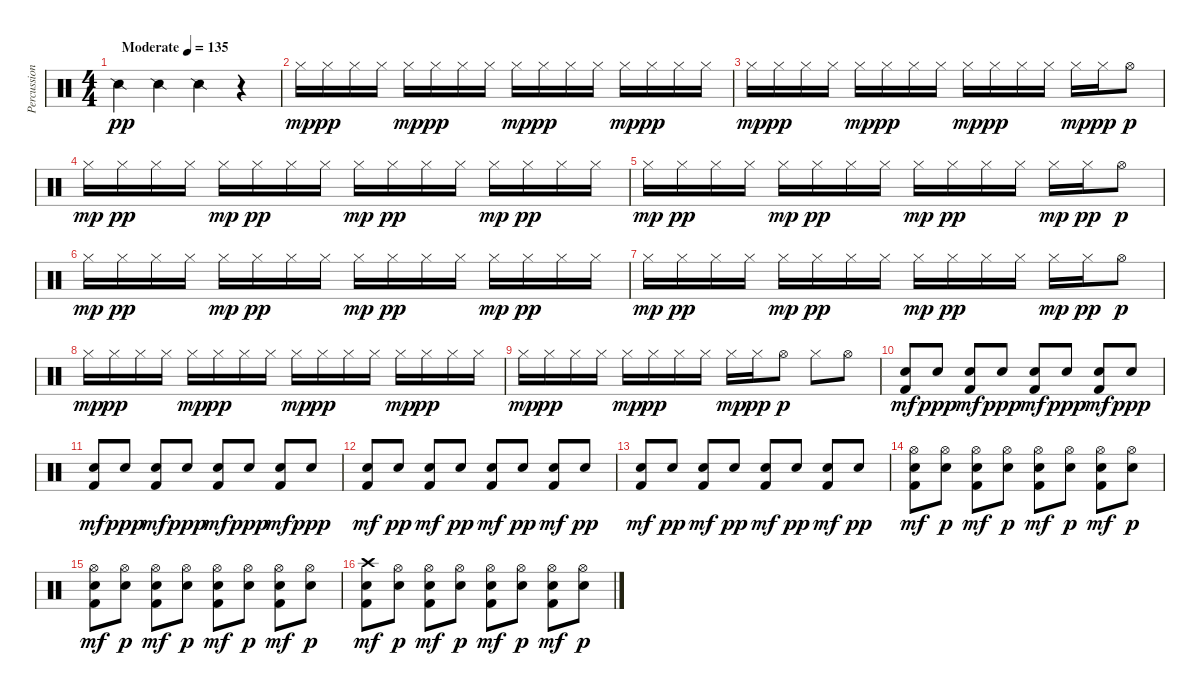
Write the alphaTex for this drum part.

\track ("Percussions" "Percussion") {instrument percussion}
\staff {score}
\articulation defaults
\ts (4 4)
\tempo (135 "Moderate")
\clef neutral
\ks c "Snare (side stick) 2".4{dy pp} "Snare (side stick) 2".4 "Snare (side stick) 2".4
r.4 |
"Hi-Hat (closed)".16{dy mp} "Hi-Hat (closed)".16{dy pp} "Hi-Hat (closed)".16 "Hi-Hat (closed)".16 "Hi-Hat (closed)".16{dy mp} "Hi-Hat (closed)".16{dy pp} "Hi-Hat (closed)".16 "Hi-Hat (closed)".16 "Hi-Hat (closed)".16{dy mp} "Hi-Hat (closed)".16{dy pp} "Hi-Hat (closed)".16 "Hi-Hat (closed)".16 "Hi-Hat (closed)".16{dy mp} "Hi-Hat (closed)".16{dy pp} "Hi-Hat (closed)".16 "Hi-Hat (closed)".16 |
"Hi-Hat (closed)".16{dy mp} "Hi-Hat (closed)".16{dy pp} "Hi-Hat (closed)".16 "Hi-Hat (closed)".16 "Hi-Hat (closed)".16{dy mp} "Hi-Hat (closed)".16{dy pp} "Hi-Hat (closed)".16 "Hi-Hat (closed)".16 "Hi-Hat (closed)".16{dy mp} "Hi-Hat (closed)".16{dy pp} "Hi-Hat (closed)".16 "Hi-Hat (closed)".16 "Hi-Hat (closed)".16{dy mp} "Hi-Hat (closed)".16{dy pp} "Hi-Hat (open)".8{dy p} |
"Hi-Hat (closed)".16{dy mp} "Hi-Hat (closed)".16{dy pp} "Hi-Hat (closed)".16 "Hi-Hat (closed)".16 "Hi-Hat (closed)".16{dy mp} "Hi-Hat (closed)".16{dy pp} "Hi-Hat (closed)".16 "Hi-Hat (closed)".16 "Hi-Hat (closed)".16{dy mp} "Hi-Hat (closed)".16{dy pp} "Hi-Hat (closed)".16 "Hi-Hat (closed)".16 "Hi-Hat (closed)".16{dy mp} "Hi-Hat (closed)".16{dy pp} "Hi-Hat (closed)".16 "Hi-Hat (closed)".16 |
"Hi-Hat (closed)".16{dy mp} "Hi-Hat (closed)".16{dy pp} "Hi-Hat (closed)".16 "Hi-Hat (closed)".16 "Hi-Hat (closed)".16{dy mp} "Hi-Hat (closed)".16{dy pp} "Hi-Hat (closed)".16 "Hi-Hat (closed)".16 "Hi-Hat (closed)".16{dy mp} "Hi-Hat (closed)".16{dy pp} "Hi-Hat (closed)".16 "Hi-Hat (closed)".16 "Hi-Hat (closed)".16{dy mp} "Hi-Hat (closed)".16{dy pp} "Hi-Hat (open)".8{dy p} |
"Hi-Hat (closed)".16{dy mp} "Hi-Hat (closed)".16{dy pp} "Hi-Hat (closed)".16 "Hi-Hat (closed)".16 "Hi-Hat (closed)".16{dy mp} "Hi-Hat (closed)".16{dy pp} "Hi-Hat (closed)".16 "Hi-Hat (closed)".16 "Hi-Hat (closed)".16{dy mp} "Hi-Hat (closed)".16{dy pp} "Hi-Hat (closed)".16 "Hi-Hat (closed)".16 "Hi-Hat (closed)".16{dy mp} "Hi-Hat (closed)".16{dy pp} "Hi-Hat (closed)".16 "Hi-Hat (closed)".16 |
"Hi-Hat (closed)".16{dy mp} "Hi-Hat (closed)".16{dy pp} "Hi-Hat (closed)".16 "Hi-Hat (closed)".16 "Hi-Hat (closed)".16{dy mp} "Hi-Hat (closed)".16{dy pp} "Hi-Hat (closed)".16 "Hi-Hat (closed)".16 "Hi-Hat (closed)".16{dy mp} "Hi-Hat (closed)".16{dy pp} "Hi-Hat (closed)".16 "Hi-Hat (closed)".16 "Hi-Hat (closed)".16{dy mp} "Hi-Hat (closed)".16{dy pp} "Hi-Hat (open)".8{dy p} |
"Hi-Hat (closed)".16{dy mp} "Hi-Hat (closed)".16{dy pp} "Hi-Hat (closed)".16 "Hi-Hat (closed)".16 "Hi-Hat (closed)".16{dy mp} "Hi-Hat (closed)".16{dy pp} "Hi-Hat (closed)".16 "Hi-Hat (closed)".16 "Hi-Hat (closed)".16{dy mp} "Hi-Hat (closed)".16{dy pp} "Hi-Hat (closed)".16 "Hi-Hat (closed)".16 "Hi-Hat (closed)".16{dy mp} "Hi-Hat (closed)".16{dy pp} "Hi-Hat (closed)".16 "Hi-Hat (closed)".16 |
"Hi-Hat (closed)".16{dy mp} "Hi-Hat (closed)".16{dy pp} "Hi-Hat (closed)".16 "Hi-Hat (closed)".16 "Hi-Hat (closed)".16{dy mp} "Hi-Hat (closed)".16{dy pp} "Hi-Hat (closed)".16 "Hi-Hat (closed)".16 "Hi-Hat (closed)".16{dy mp} "Hi-Hat (closed)".16{dy pp} "Hi-Hat (open)".8{dy p} "Hi-Hat (closed)".8 "Hi-Hat (open)".8 |
("Snare (hit) 2" "Kick (hit) 2").8{dy mf} "Snare (hit) 2".8{dy ppp} ("Snare (hit) 2" "Kick (hit) 2").8{dy mf} "Snare (hit) 2".8{dy ppp} ("Snare (hit) 2" "Kick (hit) 2").8{dy mf} "Snare (hit) 2".8{dy ppp} ("Snare (hit) 2" "Kick (hit) 2").8{dy mf} "Snare (hit) 2".8{dy ppp} |
("Snare (hit) 2" "Kick (hit) 2").8{dy mf} "Snare (hit) 2".8{dy ppp} ("Snare (hit) 2" "Kick (hit) 2").8{dy mf} "Snare (hit) 2".8{dy ppp} ("Snare (hit) 2" "Kick (hit) 2").8{dy mf} "Snare (hit) 2".8{dy ppp} ("Snare (hit) 2" "Kick (hit) 2").8{dy mf} "Snare (hit) 2".8{dy ppp} |
("Snare (hit) 2" "Kick (hit) 2").8{dy mf} "Snare (hit) 2".8{dy pp} ("Snare (hit) 2" "Kick (hit) 2").8{dy mf} "Snare (hit) 2".8{dy pp} ("Snare (hit) 2" "Kick (hit) 2").8{dy mf} "Snare (hit) 2".8{dy pp} ("Snare (hit) 2" "Kick (hit) 2").8{dy mf} "Snare (hit) 2".8{dy pp} |
("Snare (hit) 2" "Kick (hit) 2").8{dy mf} "Snare (hit) 2".8{dy pp} ("Snare (hit) 2" "Kick (hit) 2").8{dy mf} "Snare (hit) 2".8{dy pp} ("Snare (hit) 2" "Kick (hit) 2").8{dy mf} "Snare (hit) 2".8{dy pp} ("Snare (hit) 2" "Kick (hit) 2").8{dy mf} "Snare (hit) 2".8{dy pp} |
("Hi-Hat (open)" "Snare (hit) 2" "Kick (hit) 2").8{dy mf} ("Hi-Hat (open)" "Snare (hit) 2").8{dy p} ("Hi-Hat (open)" "Snare (hit) 2" "Kick (hit) 2").8{dy mf} ("Hi-Hat (open)" "Snare (hit) 2").8{dy p} ("Hi-Hat (open)" "Snare (hit) 2" "Kick (hit) 2").8{dy mf} ("Hi-Hat (open)" "Snare (hit) 2").8{dy p} ("Hi-Hat (open)" "Snare (hit) 2" "Kick (hit) 2").8{dy mf} ("Hi-Hat (open)" "Snare (hit) 2").8{dy p} |
("Hi-Hat (open)" "Snare (hit) 2" "Kick (hit) 2").8{dy mf} ("Hi-Hat (open)" "Snare (hit) 2").8{dy p} ("Hi-Hat (open)" "Snare (hit) 2" "Kick (hit) 2").8{dy mf} ("Hi-Hat (open)" "Snare (hit) 2").8{dy p} ("Hi-Hat (open)" "Snare (hit) 2" "Kick (hit) 2").8{dy mf} ("Hi-Hat (open)" "Snare (hit) 2").8{dy p} ("Hi-Hat (open)" "Snare (hit) 2" "Kick (hit) 2").8{dy mf} ("Hi-Hat (open)" "Snare (hit) 2").8{dy p} |
("Crash high (hit)" "Snare (hit) 2" "Kick (hit) 2").8{dy mf} ("Hi-Hat (open)" "Snare (hit) 2").8{dy p} ("Hi-Hat (open)" "Snare (hit) 2" "Kick (hit) 2").8{dy mf} ("Hi-Hat (open)" "Snare (hit) 2").8{dy p} ("Hi-Hat (open)" "Snare (hit) 2" "Kick (hit) 2").8{dy mf} ("Hi-Hat (open)" "Snare (hit) 2").8{dy p} ("Hi-Hat (open)" "Snare (hit) 2" "Kick (hit) 2").8{dy mf} ("Hi-Hat (open)" "Snare (hit) 2").8{dy p}
